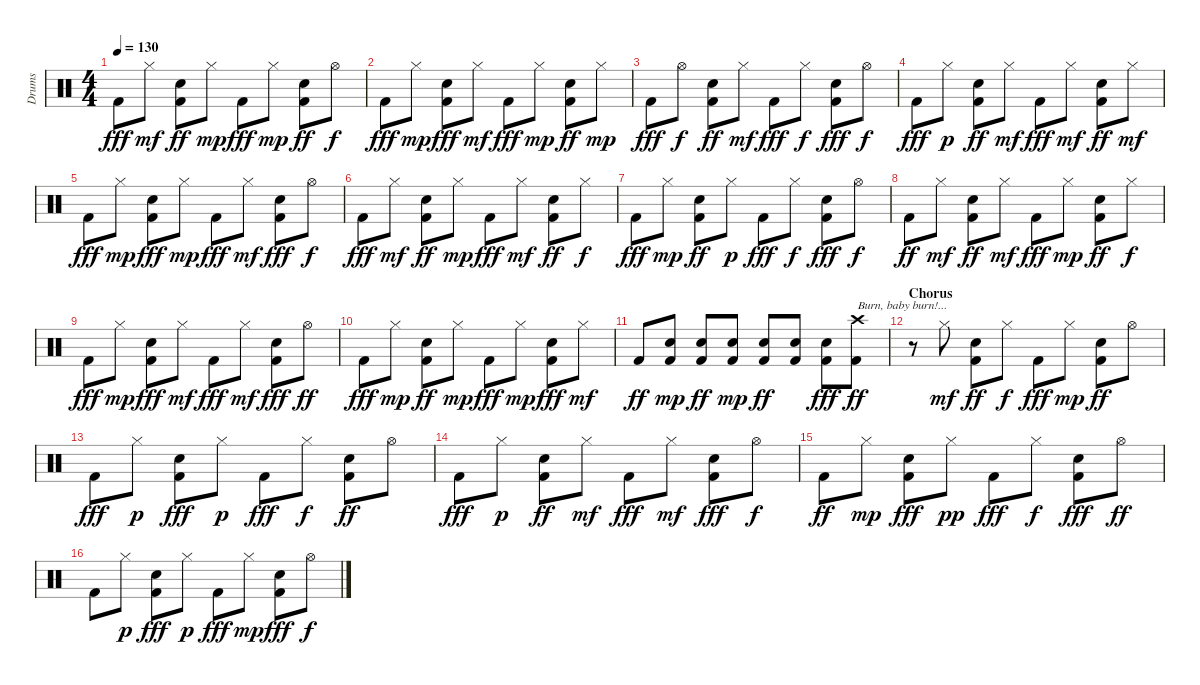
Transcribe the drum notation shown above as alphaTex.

\track ("Drums" "Drums") {instrument percussion}
\staff {score}
\articulation defaults
\ts (4 4)
\tempo 130
\clef neutral
\ks c "Kick (hit) 2".8{dy fff} "Hi-Hat (closed)".8{dy mf}
("Kick (hit) 2" "Snare (hit) 2").8{dy ff} "Hi-Hat (closed)".8{dy mp} "Kick (hit) 2".8{dy fff} "Hi-Hat (closed)".8{dy mp} ("Kick (hit) 2" "Snare (hit) 2").8{dy ff} "Hi-Hat (open)".8{dy f} |
"Kick (hit) 2".8{dy fff} "Hi-Hat (closed)".8{dy mp} ("Kick (hit) 2" "Snare (hit) 2").8{dy fff} "Hi-Hat (closed)".8{dy mf} "Kick (hit) 2".8{dy fff} "Hi-Hat (closed)".8{dy mp} ("Kick (hit) 2" "Snare (hit) 2").8{dy ff} "Hi-Hat (closed)".8{dy mp} |
"Kick (hit) 2".8{dy fff} "Hi-Hat (open)".8{dy f} ("Kick (hit) 2" "Snare (hit) 2").8{dy ff} "Hi-Hat (closed)".8{dy mf} "Kick (hit) 2".8{dy fff} "Hi-Hat (closed)".8{dy f} ("Kick (hit) 2" "Snare (hit) 2").8{dy fff} "Hi-Hat (open)".8{dy f} |
"Kick (hit) 2".8{dy fff} "Hi-Hat (closed)".8{dy p} ("Kick (hit) 2" "Snare (hit) 2").8{dy ff} "Hi-Hat (closed)".8{dy mf} "Kick (hit) 2".8{dy fff} "Hi-Hat (closed)".8{dy mf} ("Kick (hit) 2" "Snare (hit) 2").8{dy ff} "Hi-Hat (closed)".8{dy mf} |
"Kick (hit) 2".8{dy fff} "Hi-Hat (closed)".8{dy mp} ("Kick (hit) 2" "Snare (hit) 2").8{dy fff} "Hi-Hat (closed)".8{dy mp} "Kick (hit) 2".8{dy fff} "Hi-Hat (closed)".8{dy mf} ("Kick (hit) 2" "Snare (hit) 2").8{dy fff} "Hi-Hat (open)".8{dy f} |
"Kick (hit) 2".8{dy fff} "Hi-Hat (closed)".8{dy mf} ("Kick (hit) 2" "Snare (hit) 2").8{dy ff} "Hi-Hat (closed)".8{dy mp} "Kick (hit) 2".8{dy fff} "Hi-Hat (closed)".8{dy mf} ("Kick (hit) 2" "Snare (hit) 2").8{dy ff} "Hi-Hat (closed)".8{dy f} |
"Kick (hit) 2".8{dy fff} "Hi-Hat (closed)".8{dy mp} ("Kick (hit) 2" "Snare (hit) 2").8{dy ff} "Hi-Hat (closed)".8{dy p} "Kick (hit) 2".8{dy fff} "Hi-Hat (closed)".8{dy f} ("Kick (hit) 2" "Snare (hit) 2").8{dy fff} "Hi-Hat (open)".8{dy f} |
"Kick (hit) 2".8{dy ff} "Hi-Hat (closed)".8{dy mf} ("Kick (hit) 2" "Snare (hit) 2").8{dy ff} "Hi-Hat (closed)".8{dy mf} "Kick (hit) 2".8{dy fff} "Hi-Hat (closed)".8{dy mp} ("Kick (hit) 2" "Snare (hit) 2").8{dy ff} "Hi-Hat (closed)".8{dy f} |
"Kick (hit) 2".8{dy fff} "Hi-Hat (closed)".8{dy mp} ("Kick (hit) 2" "Snare (hit) 2").8{dy fff} "Hi-Hat (closed)".8{dy mf} "Kick (hit) 2".8{dy fff} "Hi-Hat (closed)".8{dy mf} ("Kick (hit) 2" "Snare (hit) 2").8{dy fff} "Hi-Hat (open)".8{dy ff} |
"Kick (hit) 2".8{dy fff} "Hi-Hat (closed)".8{dy mp} ("Kick (hit) 2" "Snare (hit) 2").8{dy ff} "Hi-Hat (closed)".8{dy mp} "Kick (hit) 2".8{dy fff} "Hi-Hat (closed)".8{dy mp} ("Kick (hit) 2" "Snare (hit) 2").8{dy fff} "Hi-Hat (closed)".8{dy mf} |
"Kick (hit) 2".8{dy ff} ("Kick (hit) 2" "Snare (hit) 2").8{dy mp} ("Kick (hit) 2" "Snare (hit) 2").8{dy ff} ("Kick (hit) 2" "Snare (hit) 2").8{dy mp} ("Kick (hit) 2" "Snare (hit) 2").8{dy ff} ("Kick (hit) 2" "Snare (hit) 2").8 ("Kick (hit) 2" "Snare (hit) 2").8{dy fff} ("Kick (hit) 2" "Crash high (hit)").8{txt "Burn, baby burn!..." dy ff} |
\section ("" "Chorus")
r.8 "Hi-Hat (closed)".8{dy mf} ("Kick (hit) 2" "Snare (hit) 2").8{dy ff} "Hi-Hat (closed)".8{dy f} "Kick (hit) 2".8{dy fff} "Hi-Hat (closed)".8{dy mp} ("Kick (hit) 2" "Snare (hit) 2").8{dy ff} "Hi-Hat (open)".8 |
"Kick (hit) 2".8{dy fff} "Hi-Hat (closed)".8{dy p} ("Kick (hit) 2" "Snare (hit) 2").8{dy fff} "Hi-Hat (closed)".8{dy p} "Kick (hit) 2".8{dy fff} "Hi-Hat (closed)".8{dy f} ("Kick (hit) 2" "Snare (hit) 2").8{dy ff} "Hi-Hat (open)".8 |
"Kick (hit) 2".8{dy fff} "Hi-Hat (closed)".8{dy p} ("Kick (hit) 2" "Snare (hit) 2").8{dy ff} "Hi-Hat (closed)".8{dy mf} "Kick (hit) 2".8{dy fff} "Hi-Hat (closed)".8{dy mf} ("Kick (hit) 2" "Snare (hit) 2").8{dy fff} "Hi-Hat (open)".8{dy f} |
"Kick (hit) 2".8{dy ff} "Hi-Hat (closed)".8{dy mp} ("Kick (hit) 2" "Snare (hit) 2").8{dy fff} "Hi-Hat (closed)".8{dy pp} "Kick (hit) 2".8{dy fff} "Hi-Hat (closed)".8{dy f} ("Kick (hit) 2" "Snare (hit) 2").8{dy fff} "Hi-Hat (open)".8{dy ff} |
"Kick (hit) 2".8 "Hi-Hat (closed)".8{dy p} ("Kick (hit) 2" "Snare (hit) 2").8{dy fff} "Hi-Hat (closed)".8{dy p} "Kick (hit) 2".8{dy fff} "Hi-Hat (closed)".8{dy mp} ("Kick (hit) 2" "Snare (hit) 2").8{dy fff} "Hi-Hat (open)".8{dy f}
